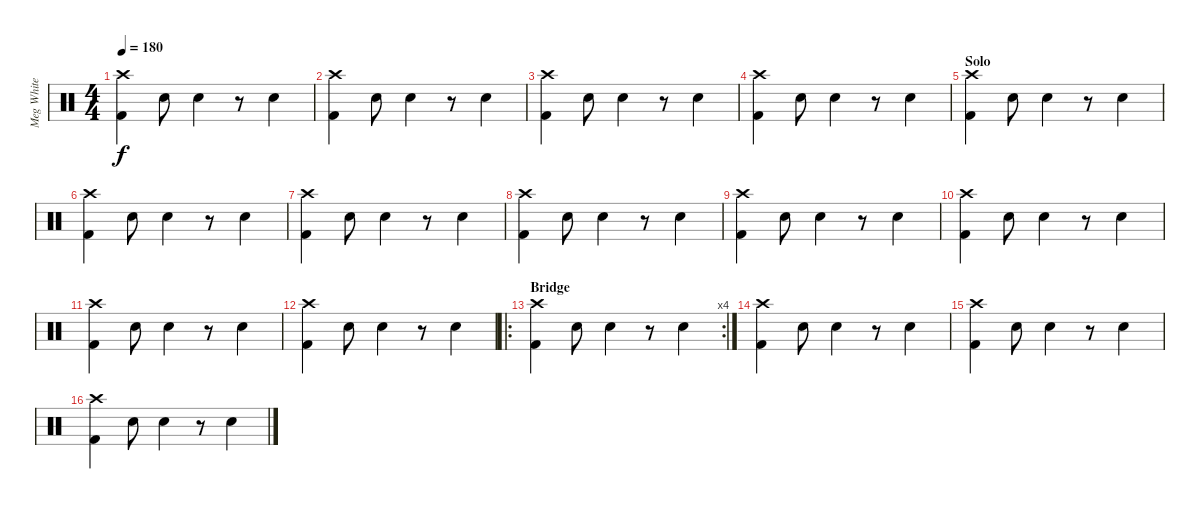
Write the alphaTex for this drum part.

\track ("Meg White" "Meg White") {instrument percussion}
\staff {score}
\articulation defaults
\ts (4 4)
\tempo 180
\clef neutral
\ks c
("Kick (hit) 2" "Crash high (hit)").4{dy f} "Snare (hit) 2".8 "Snare (hit) 2".4 r.8 "Snare (hit) 2".4 |
("Kick (hit) 2" "Crash high (hit)").4 "Snare (hit) 2".8 "Snare (hit) 2".4 r.8 "Snare (hit) 2".4 |
("Kick (hit) 2" "Crash high (hit)").4 "Snare (hit) 2".8 "Snare (hit) 2".4 r.8 "Snare (hit) 2".4 |
("Kick (hit) 2" "Crash high (hit)").4 "Snare (hit) 2".8 "Snare (hit) 2".4 r.8 "Snare (hit) 2".4 |
\section ("" "Solo")
("Kick (hit) 2" "Crash high (hit)").4 "Snare (hit) 2".8 "Snare (hit) 2".4 r.8 "Snare (hit) 2".4 |
("Kick (hit) 2" "Crash high (hit)").4 "Snare (hit) 2".8 "Snare (hit) 2".4 r.8 "Snare (hit) 2".4 |
("Kick (hit) 2" "Crash high (hit)").4 "Snare (hit) 2".8 "Snare (hit) 2".4 r.8 "Snare (hit) 2".4 |
("Kick (hit) 2" "Crash high (hit)").4 "Snare (hit) 2".8 "Snare (hit) 2".4 r.8 "Snare (hit) 2".4 |
("Kick (hit) 2" "Crash high (hit)").4 "Snare (hit) 2".8 "Snare (hit) 2".4 r.8 "Snare (hit) 2".4 |
("Kick (hit) 2" "Crash high (hit)").4 "Snare (hit) 2".8 "Snare (hit) 2".4 r.8 "Snare (hit) 2".4 |
("Kick (hit) 2" "Crash high (hit)").4 "Snare (hit) 2".8 "Snare (hit) 2".4 r.8 "Snare (hit) 2".4 |
("Kick (hit) 2" "Crash high (hit)").4 "Snare (hit) 2".8 "Snare (hit) 2".4 r.8 "Snare (hit) 2".4 |
\ro
\rc 4
\section ("" "Bridge")
("Kick (hit) 2" "Crash high (hit)").4 "Snare (hit) 2".8 "Snare (hit) 2".4 r.8 "Snare (hit) 2".4 |
("Kick (hit) 2" "Crash high (hit)").4 "Snare (hit) 2".8 "Snare (hit) 2".4 r.8 "Snare (hit) 2".4 |
("Kick (hit) 2" "Crash high (hit)").4 "Snare (hit) 2".8 "Snare (hit) 2".4 r.8 "Snare (hit) 2".4 |
("Kick (hit) 2" "Crash high (hit)").4 "Snare (hit) 2".8 "Snare (hit) 2".4 r.8 "Snare (hit) 2".4
